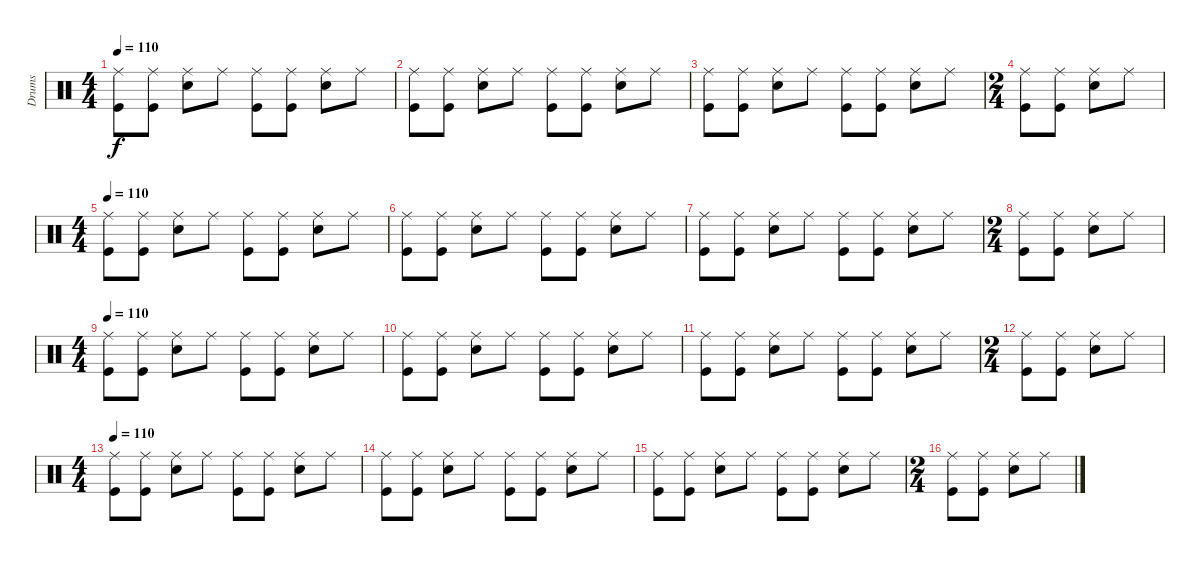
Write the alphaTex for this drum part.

\track ("Drums" "Drums") {instrument percussion}
\staff {score}
\articulation defaults
\ts (4 4)
\section ("" "")
\tempo 110
\clef neutral
\ks c
("Ride (middle)" "Kick (hit)").8{dy f} ("Ride (middle)" "Kick (hit)").8 ("Ride (middle)" "Snare (hit) 2").8 "Ride (middle)".8 ("Ride (middle)" "Kick (hit)").8 ("Ride (middle)" "Kick (hit)").8 ("Ride (middle)" "Snare (hit) 2").8 "Ride (middle)".8 |
("Ride (middle)" "Kick (hit)").8 ("Ride (middle)" "Kick (hit)").8 ("Ride (middle)" "Snare (hit) 2").8 "Ride (middle)".8 ("Ride (middle)" "Kick (hit)").8 ("Ride (middle)" "Kick (hit)").8 ("Ride (middle)" "Snare (hit) 2").8 "Ride (middle)".8 |
("Ride (middle)" "Kick (hit)").8 ("Ride (middle)" "Kick (hit)").8 ("Ride (middle)" "Snare (hit) 2").8 "Ride (middle)".8 ("Ride (middle)" "Kick (hit)").8 ("Ride (middle)" "Kick (hit)").8 ("Ride (middle)" "Snare (hit) 2").8 "Ride (middle)".8 |
\ts (2 4)
("Ride (middle)" "Kick (hit)").8 ("Ride (middle)" "Kick (hit)").8 ("Ride (middle)" "Snare (hit) 2").8 "Ride (middle)".8 |
\ts (4 4)
\tempo 110
("Ride (middle)" "Kick (hit)").8 ("Ride (middle)" "Kick (hit)").8 ("Ride (middle)" "Snare (hit) 2").8 "Ride (middle)".8 ("Ride (middle)" "Kick (hit)").8 ("Ride (middle)" "Kick (hit)").8 ("Ride (middle)" "Snare (hit) 2").8 "Ride (middle)".8 |
("Ride (middle)" "Kick (hit)").8 ("Ride (middle)" "Kick (hit)").8 ("Ride (middle)" "Snare (hit) 2").8 "Ride (middle)".8 ("Ride (middle)" "Kick (hit)").8 ("Ride (middle)" "Kick (hit)").8 ("Ride (middle)" "Snare (hit) 2").8 "Ride (middle)".8 |
("Ride (middle)" "Kick (hit)").8 ("Ride (middle)" "Kick (hit)").8 ("Ride (middle)" "Snare (hit) 2").8 "Ride (middle)".8 ("Ride (middle)" "Kick (hit)").8 ("Ride (middle)" "Kick (hit)").8 ("Ride (middle)" "Snare (hit) 2").8 "Ride (middle)".8 |
\ts (2 4)
("Ride (middle)" "Kick (hit)").8 ("Ride (middle)" "Kick (hit)").8 ("Ride (middle)" "Snare (hit) 2").8 "Ride (middle)".8 |
\ts (4 4)
\tempo 110
("Ride (middle)" "Kick (hit)").8 ("Ride (middle)" "Kick (hit)").8 ("Ride (middle)" "Snare (hit) 2").8 "Ride (middle)".8 ("Ride (middle)" "Kick (hit)").8 ("Ride (middle)" "Kick (hit)").8 ("Ride (middle)" "Snare (hit) 2").8 "Ride (middle)".8 |
("Ride (middle)" "Kick (hit)").8 ("Ride (middle)" "Kick (hit)").8 ("Ride (middle)" "Snare (hit) 2").8 "Ride (middle)".8 ("Ride (middle)" "Kick (hit)").8 ("Ride (middle)" "Kick (hit)").8 ("Ride (middle)" "Snare (hit) 2").8 "Ride (middle)".8 |
("Ride (middle)" "Kick (hit)").8 ("Ride (middle)" "Kick (hit)").8 ("Ride (middle)" "Snare (hit) 2").8 "Ride (middle)".8 ("Ride (middle)" "Kick (hit)").8 ("Ride (middle)" "Kick (hit)").8 ("Ride (middle)" "Snare (hit) 2").8 "Ride (middle)".8 |
\ts (2 4)
("Ride (middle)" "Kick (hit)").8 ("Ride (middle)" "Kick (hit)").8 ("Ride (middle)" "Snare (hit) 2").8 "Ride (middle)".8 |
\ts (4 4)
\tempo 110
("Ride (middle)" "Kick (hit)").8 ("Ride (middle)" "Kick (hit)").8 ("Ride (middle)" "Snare (hit) 2").8 "Ride (middle)".8 ("Ride (middle)" "Kick (hit)").8 ("Ride (middle)" "Kick (hit)").8 ("Ride (middle)" "Snare (hit) 2").8 "Ride (middle)".8 |
("Ride (middle)" "Kick (hit)").8 ("Ride (middle)" "Kick (hit)").8 ("Ride (middle)" "Snare (hit) 2").8 "Ride (middle)".8 ("Ride (middle)" "Kick (hit)").8 ("Ride (middle)" "Kick (hit)").8 ("Ride (middle)" "Snare (hit) 2").8 "Ride (middle)".8 |
("Ride (middle)" "Kick (hit)").8 ("Ride (middle)" "Kick (hit)").8 ("Ride (middle)" "Snare (hit) 2").8 "Ride (middle)".8 ("Ride (middle)" "Kick (hit)").8 ("Ride (middle)" "Kick (hit)").8 ("Ride (middle)" "Snare (hit) 2").8 "Ride (middle)".8 |
\ts (2 4)
("Ride (middle)" "Kick (hit)").8 ("Ride (middle)" "Kick (hit)").8 ("Ride (middle)" "Snare (hit) 2").8 "Ride (middle)".8
